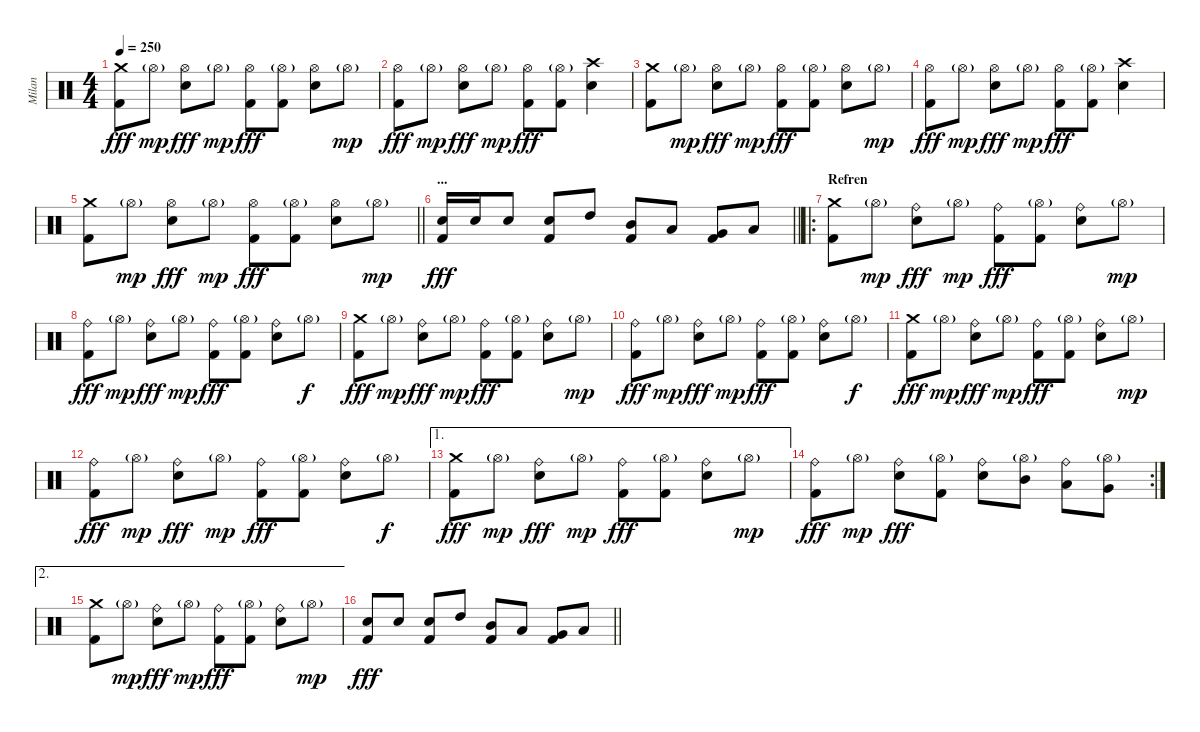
\track ("Milan" "Milan") {instrument percussion}
\staff {score}
\articulation defaults
\ts (4 4)
\tempo 250
\clef neutral
\ks c
("Crash medium (hit)" "Kick (hit) 2").8{dy fff} "Hi-Hat (open)"{g}.8{dy mp} ("Hi-Hat (open)" "Snare (hit) 2").8{dy fff} "Hi-Hat (open)"{g}.8{dy mp} ("Hi-Hat (open)" "Kick (hit) 2").8{dy fff} ("Hi-Hat (open)"{g} "Kick (hit) 2").8 ("Hi-Hat (open)" "Snare (hit) 2").8 "Hi-Hat (open)"{g}.8{dy mp} |
("Hi-Hat (open)" "Kick (hit) 2").8{dy fff} "Hi-Hat (open)"{g}.8{dy mp} ("Hi-Hat (open)" "Snare (hit) 2").8{dy fff} "Hi-Hat (open)"{g}.8{dy mp} ("Hi-Hat (open)" "Kick (hit) 2").8{dy fff} ("Hi-Hat (open)"{g} "Kick (hit) 2").8 ("Crash high (hit)" "Snare (hit) 2").4 |
("Crash medium (hit)" "Kick (hit) 2").8 "Hi-Hat (open)"{g}.8{dy mp} ("Hi-Hat (open)" "Snare (hit) 2").8{dy fff} "Hi-Hat (open)"{g}.8{dy mp} ("Hi-Hat (open)" "Kick (hit) 2").8{dy fff} ("Hi-Hat (open)"{g} "Kick (hit) 2").8 ("Hi-Hat (open)" "Snare (hit) 2").8 "Hi-Hat (open)"{g}.8{dy mp} |
("Hi-Hat (open)" "Kick (hit) 2").8{dy fff} "Hi-Hat (open)"{g}.8{dy mp} ("Hi-Hat (open)" "Snare (hit) 2").8{dy fff} "Hi-Hat (open)"{g}.8{dy mp} ("Hi-Hat (open)" "Kick (hit) 2").8{dy fff} ("Hi-Hat (open)"{g} "Kick (hit) 2").8 ("Crash high (hit)" "Snare (hit) 2").4 |
\barLineRight lightlight
("Crash medium (hit)" "Kick (hit) 2").8 "Hi-Hat (open)"{g}.8{dy mp} ("Hi-Hat (open)" "Snare (hit) 2").8{dy fff} "Hi-Hat (open)"{g}.8{dy mp} ("Hi-Hat (open)" "Kick (hit) 2").8{dy fff} ("Hi-Hat (open)"{g} "Kick (hit) 2").8 ("Hi-Hat (open)" "Snare (hit) 2").8 "Hi-Hat (open)"{g}.8{dy mp} |
\section ("" "...")
\barLineRight lightlight
("Snare (hit) 2" "Kick (hit) 2").16{dy fff} "Snare (hit) 2".16 "Snare (hit) 2".8 ("Snare (hit) 2" "Kick (hit) 2").8 "High Tom (hit)".8 ("Mid Tom (hit)" "Kick (hit) 2").8 "Low Tom (hit)".8 ("Very Low Tom (hit)" "Kick (hit) 2").8 "Low Floor Tom (hit)".8 |
\ro
\section ("" "Refren")
("Crash medium (hit)" "Kick (hit) 2").8 "Hi-Hat (open)"{g}.8{dy mp} ("Ride (bell)" "Snare (hit) 2").8{dy fff} "Hi-Hat (open)"{g}.8{dy mp} ("Ride (bell)" "Kick (hit) 2").8{dy fff} ("Hi-Hat (open)"{g} "Kick (hit) 2").8 ("Ride (bell)" "Snare (hit) 2").8 "Hi-Hat (open)"{g}.8{dy mp} |
("Ride (bell)" "Kick (hit) 2").8{dy fff} "Hi-Hat (open)"{g}.8{dy mp} ("Ride (bell)" "Snare (hit) 2").8{dy fff} "Hi-Hat (open)"{g}.8{dy mp} ("Ride (bell)" "Kick (hit) 2").8{dy fff} ("Hi-Hat (open)"{g} "Kick (hit) 2").8 ("Ride (bell)" "Snare (hit) 2").8 "Hi-Hat (open)"{g}.8{dy f} |
("Crash medium (hit)" "Kick (hit) 2").8{dy fff} "Hi-Hat (open)"{g}.8{dy mp} ("Ride (bell)" "Snare (hit) 2").8{dy fff} "Hi-Hat (open)"{g}.8{dy mp} ("Ride (bell)" "Kick (hit) 2").8{dy fff} ("Hi-Hat (open)"{g} "Kick (hit) 2").8 ("Ride (bell)" "Snare (hit) 2").8 "Hi-Hat (open)"{g}.8{dy mp} |
("Ride (bell)" "Kick (hit) 2").8{dy fff} "Hi-Hat (open)"{g}.8{dy mp} ("Ride (bell)" "Snare (hit) 2").8{dy fff} "Hi-Hat (open)"{g}.8{dy mp} ("Ride (bell)" "Kick (hit) 2").8{dy fff} ("Hi-Hat (open)"{g} "Kick (hit) 2").8 ("Ride (bell)" "Snare (hit) 2").8 "Hi-Hat (open)"{g}.8{dy f} |
("Crash medium (hit)" "Kick (hit) 2").8{dy fff} "Hi-Hat (open)"{g}.8{dy mp} ("Ride (bell)" "Snare (hit) 2").8{dy fff} "Hi-Hat (open)"{g}.8{dy mp} ("Ride (bell)" "Kick (hit) 2").8{dy fff} ("Hi-Hat (open)"{g} "Kick (hit) 2").8 ("Ride (bell)" "Snare (hit) 2").8 "Hi-Hat (open)"{g}.8{dy mp} |
("Ride (bell)" "Kick (hit) 2").8{dy fff} "Hi-Hat (open)"{g}.8{dy mp} ("Ride (bell)" "Snare (hit) 2").8{dy fff} "Hi-Hat (open)"{g}.8{dy mp} ("Ride (bell)" "Kick (hit) 2").8{dy fff} ("Hi-Hat (open)"{g} "Kick (hit) 2").8 ("Ride (bell)" "Snare (hit) 2").8 "Hi-Hat (open)"{g}.8{dy f} |
\ae 1
("Crash medium (hit)" "Kick (hit) 2").8{dy fff} "Hi-Hat (open)"{g}.8{dy mp} ("Ride (bell)" "Snare (hit) 2").8{dy fff} "Hi-Hat (open)"{g}.8{dy mp} ("Ride (bell)" "Kick (hit) 2").8{dy fff} ("Hi-Hat (open)"{g} "Kick (hit) 2").8 ("Ride (bell)" "Snare (hit) 2").8 "Hi-Hat (open)"{g}.8{dy mp} |
\rc 2
("Ride (bell)" "Kick (hit) 2").8{dy fff} "Hi-Hat (open)"{g}.8{dy mp} ("Ride (bell)" "Snare (hit) 2").8{dy fff} ("Hi-Hat (open)"{g} "Kick (hit) 2").8 ("Ride (bell)" "Snare (hit) 2").8 ("Hi-Hat (open)"{g} "Mid Tom (hit)").8 ("Ride (bell)" "Low Tom (hit)").8 ("Hi-Hat (open)"{g} "Very Low Tom (hit)").8 |
\ae 2
("Crash medium (hit)" "Kick (hit) 2").8 "Hi-Hat (open)"{g}.8{dy mp} ("Ride (bell)" "Snare (hit) 2").8{dy fff} "Hi-Hat (open)"{g}.8{dy mp} ("Ride (bell)" "Kick (hit) 2").8{dy fff} ("Hi-Hat (open)"{g} "Kick (hit) 2").8 ("Ride (bell)" "Snare (hit) 2").8 "Hi-Hat (open)"{g}.8{dy mp} |
\barLineRight lightlight
("Snare (hit) 2" "Kick (hit) 2").8{dy fff} "Snare (hit) 2".8 ("Snare (hit) 2" "Kick (hit) 2").8 "High Tom (hit)".8 ("Mid Tom (hit)" "Kick (hit) 2").8 "Low Tom (hit)".8 ("Very Low Tom (hit)" "Kick (hit) 2").8 "Low Floor Tom (hit)".8
